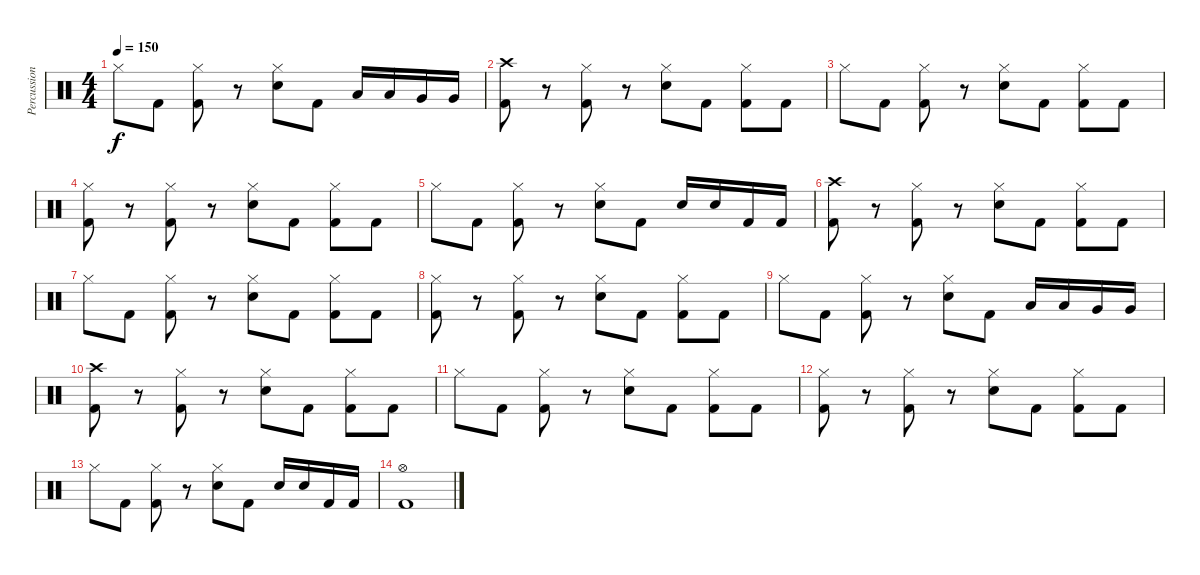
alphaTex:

\track ("Percussion" "Percussion") {instrument percussion}
\staff {score}
\articulation defaults
\ts (4 4)
\tempo 150
\clef neutral
\ks c "Hi-Hat (closed)".8{dy f} "Kick (hit) 2".8
("Hi-Hat (closed)" "Kick (hit) 2").8 r.8 ("Hi-Hat (closed)" "Electric Snare (hit)").8 "Kick (hit) 2".8 "Low Tom (hit)".16 "Low Tom (hit)".16 "Very Low Tom (hit)".16 "Very Low Tom (hit)".16 |
("Crash high (hit)" "Kick (hit) 2").8 r.8 ("Hi-Hat (closed)" "Kick (hit) 2").8 r.8 ("Hi-Hat (closed)" "Electric Snare (hit)").8 "Kick (hit) 2".8 ("Hi-Hat (closed)" "Kick (hit) 2").8 "Kick (hit) 2".8 |
"Hi-Hat (closed)".8 "Kick (hit) 2".8 ("Hi-Hat (closed)" "Kick (hit) 2").8 r.8 ("Hi-Hat (closed)" "Electric Snare (hit)").8 "Kick (hit) 2".8 ("Hi-Hat (closed)" "Kick (hit) 2").8 "Kick (hit) 2".8 |
("Hi-Hat (closed)" "Kick (hit) 2").8 r.8 ("Hi-Hat (closed)" "Kick (hit) 2").8 r.8 ("Hi-Hat (closed)" "Electric Snare (hit)").8 "Kick (hit) 2".8 ("Hi-Hat (closed)" "Kick (hit) 2").8 "Kick (hit) 2".8 |
"Hi-Hat (closed)".8 "Kick (hit) 2".8 ("Hi-Hat (closed)" "Kick (hit) 2").8 r.8 ("Hi-Hat (closed)" "Electric Snare (hit)").8 "Kick (hit) 2".8 "Electric Snare (hit)".16 "Electric Snare (hit)".16 "Kick (hit) 2".16 "Kick (hit) 2".16 |
("Crash high (hit)" "Kick (hit) 2").8 r.8 ("Hi-Hat (closed)" "Kick (hit) 2").8 r.8 ("Hi-Hat (closed)" "Electric Snare (hit)").8 "Kick (hit) 2".8 ("Hi-Hat (closed)" "Kick (hit) 2").8 "Kick (hit) 2".8 |
"Hi-Hat (closed)".8 "Kick (hit) 2".8 ("Hi-Hat (closed)" "Kick (hit) 2").8 r.8 ("Hi-Hat (closed)" "Electric Snare (hit)").8 "Kick (hit) 2".8 ("Hi-Hat (closed)" "Kick (hit) 2").8 "Kick (hit) 2".8 |
("Hi-Hat (closed)" "Kick (hit) 2").8 r.8 ("Hi-Hat (closed)" "Kick (hit) 2").8 r.8 ("Hi-Hat (closed)" "Electric Snare (hit)").8 "Kick (hit) 2".8 ("Hi-Hat (closed)" "Kick (hit) 2").8 "Kick (hit) 2".8 |
"Hi-Hat (closed)".8 "Kick (hit) 2".8 ("Hi-Hat (closed)" "Kick (hit) 2").8 r.8 ("Hi-Hat (closed)" "Electric Snare (hit)").8 "Kick (hit) 2".8 "Low Tom (hit)".16 "Low Tom (hit)".16 "Very Low Tom (hit)".16 "Very Low Tom (hit)".16 |
("Crash high (hit)" "Kick (hit) 2").8 r.8 ("Hi-Hat (closed)" "Kick (hit) 2").8 r.8 ("Hi-Hat (closed)" "Electric Snare (hit)").8 "Kick (hit) 2".8 ("Hi-Hat (closed)" "Kick (hit) 2").8 "Kick (hit) 2".8 |
"Hi-Hat (closed)".8 "Kick (hit) 2".8 ("Hi-Hat (closed)" "Kick (hit) 2").8 r.8 ("Hi-Hat (closed)" "Electric Snare (hit)").8 "Kick (hit) 2".8 ("Hi-Hat (closed)" "Kick (hit) 2").8 "Kick (hit) 2".8 |
("Hi-Hat (closed)" "Kick (hit) 2").8 r.8 ("Hi-Hat (closed)" "Kick (hit) 2").8 r.8 ("Hi-Hat (closed)" "Electric Snare (hit)").8 "Kick (hit) 2".8 ("Hi-Hat (closed)" "Kick (hit) 2").8 "Kick (hit) 2".8 |
"Hi-Hat (closed)".8 "Kick (hit) 2".8 ("Hi-Hat (closed)" "Kick (hit) 2").8 r.8 ("Hi-Hat (closed)" "Electric Snare (hit)").8 "Kick (hit) 2".8 "Electric Snare (hit)".16 "Electric Snare (hit)".16 "Kick (hit) 2".16 "Kick (hit) 2".16 |
("Hi-Hat (open)" "Kick (hit) 2").1
